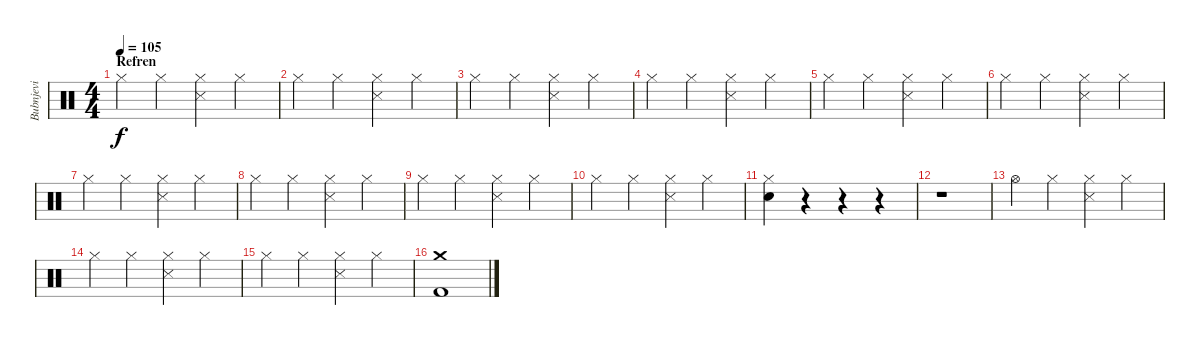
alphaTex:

\track ("Bubnjevi" "Bubnjevi") {instrument percussion}
\staff {score}
\articulation defaults
\ts (4 4)
\section ("" "Refren")
\tempo 105
\clef neutral
\ks c "Hi-Hat (closed)".4{dy f} "Hi-Hat (closed)".4
("Snare (side stick) 3" "Hi-Hat (closed)").4 "Hi-Hat (closed)".4 |
"Hi-Hat (closed)".4 "Hi-Hat (closed)".4 ("Snare (side stick) 3" "Hi-Hat (closed)").4 "Hi-Hat (closed)".4 |
"Hi-Hat (closed)".4 "Hi-Hat (closed)".4 ("Snare (side stick) 3" "Hi-Hat (closed)").4 "Hi-Hat (closed)".4 |
"Hi-Hat (closed)".4 "Hi-Hat (closed)".4 ("Snare (side stick) 3" "Hi-Hat (closed)").4 "Hi-Hat (closed)".4 |
"Hi-Hat (closed)".4 "Hi-Hat (closed)".4 ("Snare (side stick) 3" "Hi-Hat (closed)").4 "Hi-Hat (closed)".4 |
"Hi-Hat (closed)".4 "Hi-Hat (closed)".4 ("Snare (side stick) 3" "Hi-Hat (closed)").4 "Hi-Hat (closed)".4 |
"Hi-Hat (closed)".4 "Hi-Hat (closed)".4 ("Snare (side stick) 3" "Hi-Hat (closed)").4 "Hi-Hat (closed)".4 |
"Hi-Hat (closed)".4 "Hi-Hat (closed)".4 ("Snare (side stick) 3" "Hi-Hat (closed)").4 "Hi-Hat (closed)".4 |
"Hi-Hat (closed)".4 "Hi-Hat (closed)".4 ("Snare (side stick) 3" "Hi-Hat (closed)").4 "Hi-Hat (closed)".4 |
"Hi-Hat (closed)".4 "Hi-Hat (closed)".4 ("Snare (side stick) 3" "Hi-Hat (closed)").4 "Hi-Hat (closed)".4 |
("Electric Snare (hit)" "Hi-Hat (closed)").4 r.4 r.4 r.4 |
r.1 |
"Hi-Hat (open)".4 "Hi-Hat (closed)".4 ("Snare (side stick) 3" "Hi-Hat (closed)").4 "Hi-Hat (closed)".4 |
"Hi-Hat (closed)".4 "Hi-Hat (closed)".4 ("Snare (side stick) 3" "Hi-Hat (closed)").4 "Hi-Hat (closed)".4 |
"Hi-Hat (closed)".4 "Hi-Hat (closed)".4 ("Snare (side stick) 3" "Hi-Hat (closed)").4 "Hi-Hat (closed)".4 |
("Crash medium (hit)" "Kick (hit) 2").1
